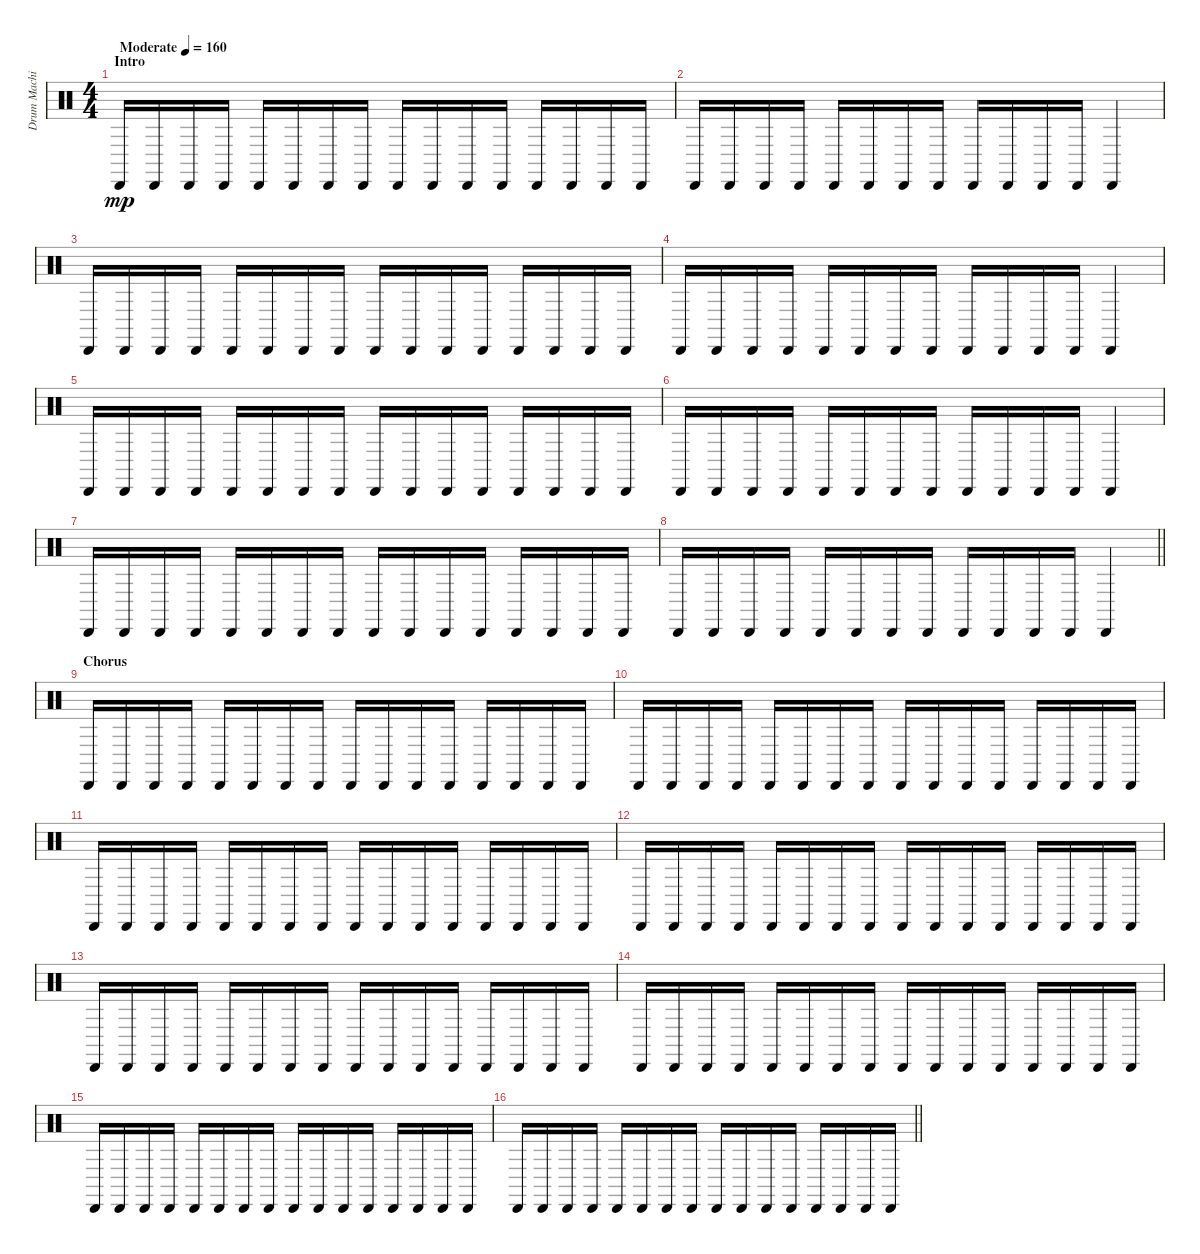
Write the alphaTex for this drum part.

\track ("Drum Machine" "Drum Machi") {instrument percussion}
\staff {score}
\articulation defaults
\ts (4 4)
\section ("" "Intro")
\tempo (160 "Moderate")
\clef neutral
\ks c "Cabasa (hit)".16{dy mp} "Cabasa (hit)".16 "Cabasa (hit)".16 "Cabasa (hit)".16 "Cabasa (hit)".16 "Cabasa (hit)".16 "Cabasa (hit)".16 "Cabasa (hit)".16 "Cabasa (hit)".16 "Cabasa (hit)".16 "Cabasa (hit)".16 "Cabasa (hit)".16 "Cabasa (hit)".16 "Cabasa (hit)".16 "Cabasa (hit)".16 "Cabasa (hit)".16
|
"Cabasa (hit)".16 "Cabasa (hit)".16 "Cabasa (hit)".16 "Cabasa (hit)".16 "Cabasa (hit)".16 "Cabasa (hit)".16 "Cabasa (hit)".16 "Cabasa (hit)".16 "Cabasa (hit)".16 "Cabasa (hit)".16 "Cabasa (hit)".16 "Cabasa (hit)".16 "Cabasa (hit)".4 |
"Cabasa (hit)".16 "Cabasa (hit)".16 "Cabasa (hit)".16 "Cabasa (hit)".16 "Cabasa (hit)".16 "Cabasa (hit)".16 "Cabasa (hit)".16 "Cabasa (hit)".16 "Cabasa (hit)".16 "Cabasa (hit)".16 "Cabasa (hit)".16 "Cabasa (hit)".16 "Cabasa (hit)".16 "Cabasa (hit)".16 "Cabasa (hit)".16 "Cabasa (hit)".16 |
"Cabasa (hit)".16 "Cabasa (hit)".16 "Cabasa (hit)".16 "Cabasa (hit)".16 "Cabasa (hit)".16 "Cabasa (hit)".16 "Cabasa (hit)".16 "Cabasa (hit)".16 "Cabasa (hit)".16 "Cabasa (hit)".16 "Cabasa (hit)".16 "Cabasa (hit)".16 "Cabasa (hit)".4 |
"Cabasa (hit)".16 "Cabasa (hit)".16 "Cabasa (hit)".16 "Cabasa (hit)".16 "Cabasa (hit)".16 "Cabasa (hit)".16 "Cabasa (hit)".16 "Cabasa (hit)".16 "Cabasa (hit)".16 "Cabasa (hit)".16 "Cabasa (hit)".16 "Cabasa (hit)".16 "Cabasa (hit)".16 "Cabasa (hit)".16 "Cabasa (hit)".16 "Cabasa (hit)".16 |
"Cabasa (hit)".16 "Cabasa (hit)".16 "Cabasa (hit)".16 "Cabasa (hit)".16 "Cabasa (hit)".16 "Cabasa (hit)".16 "Cabasa (hit)".16 "Cabasa (hit)".16 "Cabasa (hit)".16 "Cabasa (hit)".16 "Cabasa (hit)".16 "Cabasa (hit)".16 "Cabasa (hit)".4 |
"Cabasa (hit)".16 "Cabasa (hit)".16 "Cabasa (hit)".16 "Cabasa (hit)".16 "Cabasa (hit)".16 "Cabasa (hit)".16 "Cabasa (hit)".16 "Cabasa (hit)".16 "Cabasa (hit)".16 "Cabasa (hit)".16 "Cabasa (hit)".16 "Cabasa (hit)".16 "Cabasa (hit)".16 "Cabasa (hit)".16 "Cabasa (hit)".16 "Cabasa (hit)".16 |
\barLineRight lightlight "Cabasa (hit)".16 "Cabasa (hit)".16 "Cabasa (hit)".16 "Cabasa (hit)".16 "Cabasa (hit)".16 "Cabasa (hit)".16 "Cabasa (hit)".16 "Cabasa (hit)".16 "Cabasa (hit)".16 "Cabasa (hit)".16 "Cabasa (hit)".16 "Cabasa (hit)".16 "Cabasa (hit)".4
|
\section ("" "Chorus")
"Cabasa (hit)".16 "Cabasa (hit)".16 "Cabasa (hit)".16 "Cabasa (hit)".16 "Cabasa (hit)".16 "Cabasa (hit)".16 "Cabasa (hit)".16 "Cabasa (hit)".16 "Cabasa (hit)".16 "Cabasa (hit)".16 "Cabasa (hit)".16 "Cabasa (hit)".16 "Cabasa (hit)".16 "Cabasa (hit)".16 "Cabasa (hit)".16 "Cabasa (hit)".16 |
"Cabasa (hit)".16 "Cabasa (hit)".16 "Cabasa (hit)".16 "Cabasa (hit)".16 "Cabasa (hit)".16 "Cabasa (hit)".16 "Cabasa (hit)".16 "Cabasa (hit)".16 "Cabasa (hit)".16 "Cabasa (hit)".16 "Cabasa (hit)".16 "Cabasa (hit)".16 "Cabasa (hit)".16 "Cabasa (hit)".16 "Cabasa (hit)".16 "Cabasa (hit)".16 |
"Cabasa (hit)".16 "Cabasa (hit)".16 "Cabasa (hit)".16 "Cabasa (hit)".16 "Cabasa (hit)".16 "Cabasa (hit)".16 "Cabasa (hit)".16 "Cabasa (hit)".16 "Cabasa (hit)".16 "Cabasa (hit)".16 "Cabasa (hit)".16 "Cabasa (hit)".16 "Cabasa (hit)".16 "Cabasa (hit)".16 "Cabasa (hit)".16 "Cabasa (hit)".16 |
"Cabasa (hit)".16 "Cabasa (hit)".16 "Cabasa (hit)".16 "Cabasa (hit)".16 "Cabasa (hit)".16 "Cabasa (hit)".16 "Cabasa (hit)".16 "Cabasa (hit)".16 "Cabasa (hit)".16 "Cabasa (hit)".16 "Cabasa (hit)".16 "Cabasa (hit)".16 "Cabasa (hit)".16 "Cabasa (hit)".16 "Cabasa (hit)".16 "Cabasa (hit)".16 |
"Cabasa (hit)".16 "Cabasa (hit)".16 "Cabasa (hit)".16 "Cabasa (hit)".16 "Cabasa (hit)".16 "Cabasa (hit)".16 "Cabasa (hit)".16 "Cabasa (hit)".16 "Cabasa (hit)".16 "Cabasa (hit)".16 "Cabasa (hit)".16 "Cabasa (hit)".16 "Cabasa (hit)".16 "Cabasa (hit)".16 "Cabasa (hit)".16 "Cabasa (hit)".16 |
"Cabasa (hit)".16 "Cabasa (hit)".16 "Cabasa (hit)".16 "Cabasa (hit)".16 "Cabasa (hit)".16 "Cabasa (hit)".16 "Cabasa (hit)".16 "Cabasa (hit)".16 "Cabasa (hit)".16 "Cabasa (hit)".16 "Cabasa (hit)".16 "Cabasa (hit)".16 "Cabasa (hit)".16 "Cabasa (hit)".16 "Cabasa (hit)".16 "Cabasa (hit)".16 |
"Cabasa (hit)".16 "Cabasa (hit)".16 "Cabasa (hit)".16 "Cabasa (hit)".16 "Cabasa (hit)".16 "Cabasa (hit)".16 "Cabasa (hit)".16 "Cabasa (hit)".16 "Cabasa (hit)".16 "Cabasa (hit)".16 "Cabasa (hit)".16 "Cabasa (hit)".16 "Cabasa (hit)".16 "Cabasa (hit)".16 "Cabasa (hit)".16 "Cabasa (hit)".16 |
\barLineRight lightlight "Cabasa (hit)".16 "Cabasa (hit)".16 "Cabasa (hit)".16 "Cabasa (hit)".16 "Cabasa (hit)".16 "Cabasa (hit)".16 "Cabasa (hit)".16 "Cabasa (hit)".16 "Cabasa (hit)".16 "Cabasa (hit)".16 "Cabasa (hit)".16 "Cabasa (hit)".16 "Cabasa (hit)".16 "Cabasa (hit)".16 "Cabasa (hit)".16 "Cabasa (hit)".16
